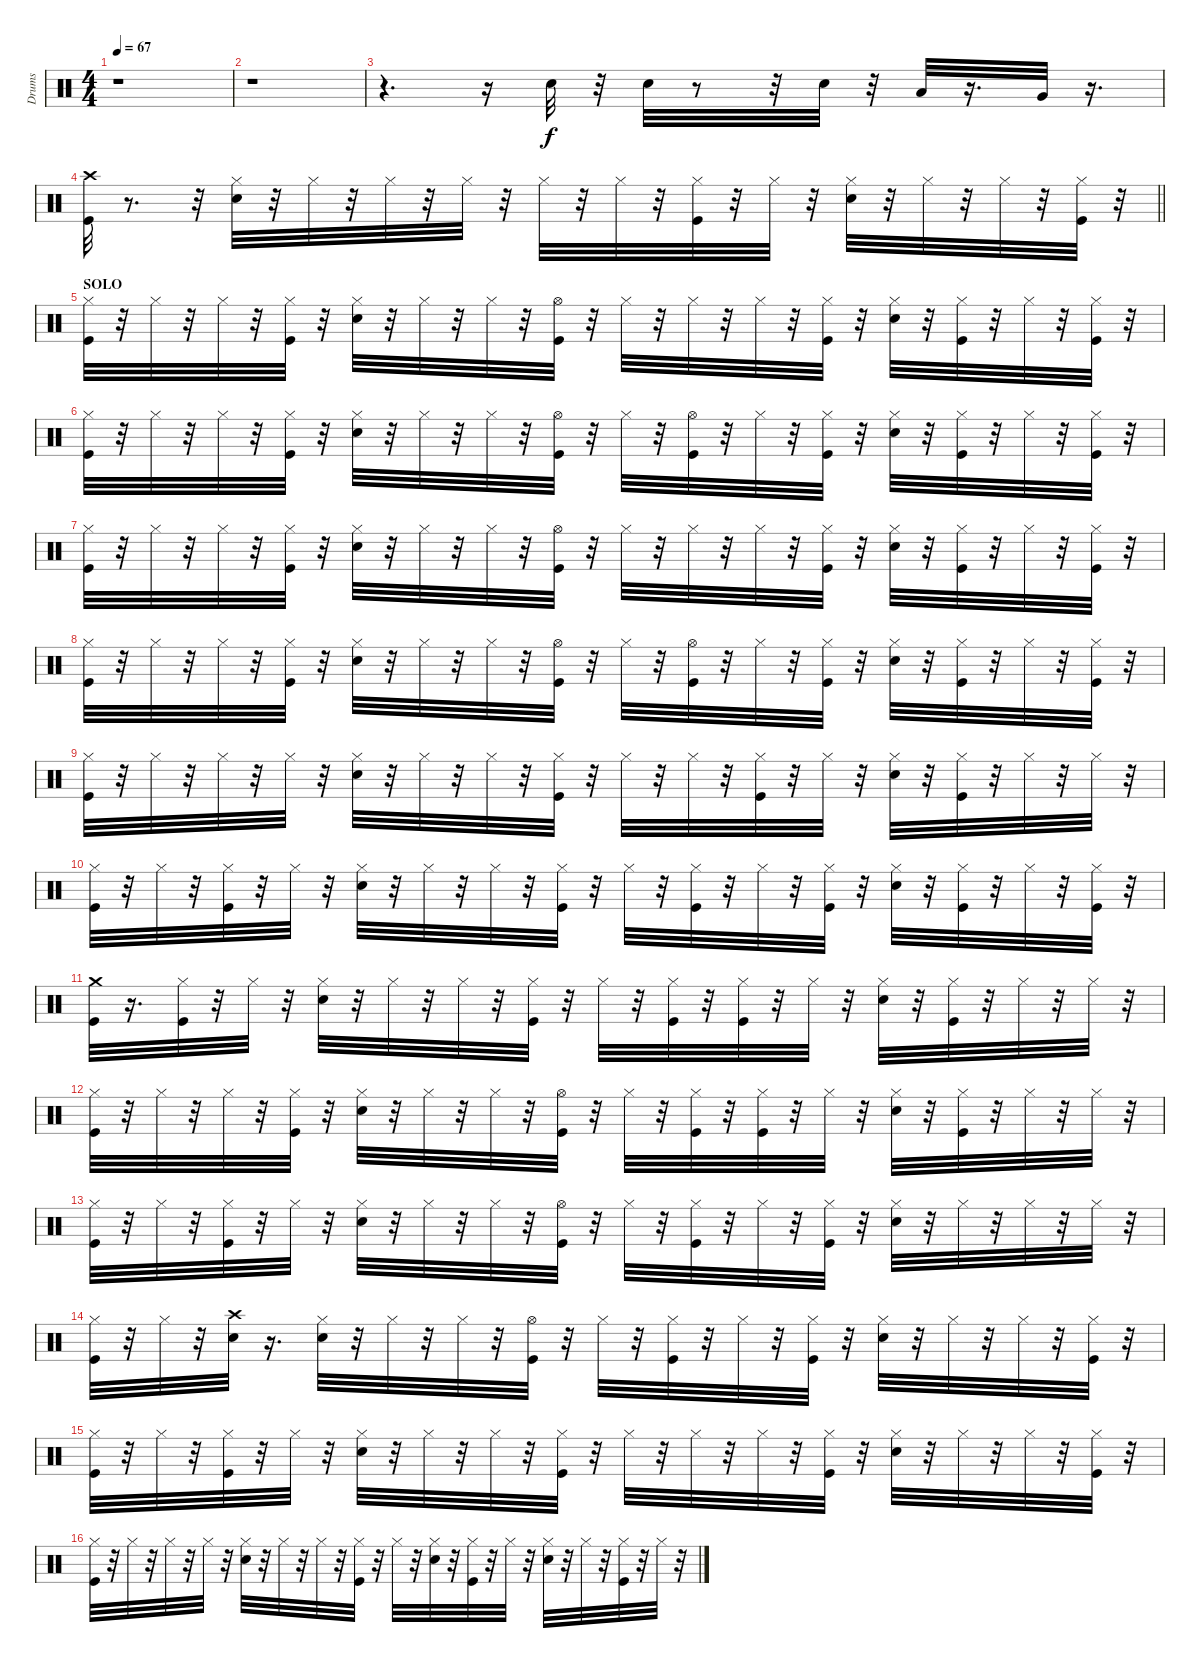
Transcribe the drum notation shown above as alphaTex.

\track ("Drums" "Drums") {instrument percussion}
\staff {score}
\articulation defaults
\ts (4 4)
\tempo 67
\clef neutral
\ks c
r.1{dy mf} |
r.1 |
r.4{d} r.16 "Snare (hit) 2".32{dy f} r.32 "Snare (hit) 2".32 r.8 r.32 "Snare (hit) 2".32 r.32 "Low Tom (hit)".32 r.16{d} "Very Low Tom (hit)".32 r.16{d} |
\barLineRight lightlight
("Crash high (hit)" "Kick (hit)").32 r.8{d} r.32 ("Hi-Hat (closed)" "Snare (hit) 2").32 r.32 "Hi-Hat (closed)".32 r.32 "Hi-Hat (closed)".32 r.32 "Hi-Hat (closed)".32 r.32 "Hi-Hat (closed)".32 r.32 "Hi-Hat (closed)".32 r.32 ("Hi-Hat (closed)" "Kick (hit)").32 r.32 "Hi-Hat (closed)".32 r.32 ("Hi-Hat (closed)" "Snare (hit) 2").32 r.32 "Hi-Hat (closed)".32 r.32 "Hi-Hat (closed)".32 r.32 ("Hi-Hat (closed)" "Kick (hit)").32 r.32 |
\section ("" "SOLO")
("Kick (hit)" "Hi-Hat (closed)").32 r.32 "Hi-Hat (closed)".32 r.32 "Hi-Hat (closed)".32 r.32 ("Kick (hit)" "Hi-Hat (closed)").32 r.32 ("Snare (hit) 2" "Hi-Hat (closed)").32 r.32 "Hi-Hat (closed)".32 r.32 "Hi-Hat (closed)".32 r.32 ("Kick (hit)" "Hi-Hat (open)").32 r.32 "Hi-Hat (closed)".32 r.32 "Hi-Hat (closed)".32 r.32 "Hi-Hat (closed)".32 r.32 ("Kick (hit)" "Hi-Hat (closed)").32 r.32 ("Snare (hit) 2" "Hi-Hat (closed)").32 r.32 ("Kick (hit)" "Hi-Hat (closed)").32 r.32 "Hi-Hat (closed)".32 r.32 ("Kick (hit)" "Hi-Hat (closed)").32 r.32 |
("Kick (hit)" "Hi-Hat (closed)").32 r.32 "Hi-Hat (closed)".32 r.32 "Hi-Hat (closed)".32 r.32 ("Kick (hit)" "Hi-Hat (closed)").32 r.32 ("Snare (hit) 2" "Hi-Hat (closed)").32 r.32 "Hi-Hat (closed)".32 r.32 "Hi-Hat (closed)".32 r.32 ("Kick (hit)" "Hi-Hat (open)").32 r.32 "Hi-Hat (closed)".32 r.32 ("Kick (hit)" "Hi-Hat (open)").32 r.32 "Hi-Hat (closed)".32 r.32 ("Kick (hit)" "Hi-Hat (closed)").32 r.32 ("Snare (hit) 2" "Hi-Hat (closed)").32 r.32 ("Kick (hit)" "Hi-Hat (closed)").32 r.32 "Hi-Hat (closed)".32 r.32 ("Kick (hit)" "Hi-Hat (closed)").32 r.32 |
("Hi-Hat (closed)" "Kick (hit)").32 r.32 "Hi-Hat (closed)".32 r.32 "Hi-Hat (closed)".32 r.32 ("Hi-Hat (closed)" "Kick (hit)").32 r.32 ("Hi-Hat (closed)" "Snare (hit) 2").32 r.32 "Hi-Hat (closed)".32 r.32 "Hi-Hat (closed)".32 r.32 ("Hi-Hat (open)" "Kick (hit)").32 r.32 "Hi-Hat (closed)".32 r.32 "Hi-Hat (closed)".32 r.32 "Hi-Hat (closed)".32 r.32 ("Hi-Hat (closed)" "Kick (hit)").32 r.32 ("Hi-Hat (closed)" "Snare (hit) 2").32 r.32 ("Hi-Hat (closed)" "Kick (hit)").32 r.32 "Hi-Hat (closed)".32 r.32 ("Hi-Hat (closed)" "Kick (hit)").32 r.32 |
("Hi-Hat (closed)" "Kick (hit)").32 r.32 "Hi-Hat (closed)".32 r.32 "Hi-Hat (closed)".32 r.32 ("Hi-Hat (closed)" "Kick (hit)").32 r.32 ("Hi-Hat (closed)" "Snare (hit) 2").32 r.32 "Hi-Hat (closed)".32 r.32 "Hi-Hat (closed)".32 r.32 ("Hi-Hat (open)" "Kick (hit)").32 r.32 "Hi-Hat (closed)".32 r.32 ("Kick (hit)" "Hi-Hat (open)").32 r.32 "Hi-Hat (closed)".32 r.32 ("Hi-Hat (closed)" "Kick (hit)").32 r.32 ("Hi-Hat (closed)" "Snare (hit) 2").32 r.32 ("Hi-Hat (closed)" "Kick (hit)").32 r.32 "Hi-Hat (closed)".32 r.32 ("Hi-Hat (closed)" "Kick (hit)").32 r.32 |
("Kick (hit)" "Hi-Hat (closed)").32 r.32 "Hi-Hat (closed)".32 r.32 "Hi-Hat (closed)".32 r.32 "Hi-Hat (closed)".32 r.32 ("Snare (hit) 2" "Hi-Hat (closed)").32 r.32 "Hi-Hat (closed)".32 r.32 "Hi-Hat (closed)".32 r.32 ("Hi-Hat (closed)" "Kick (hit)").32 r.32 "Hi-Hat (closed)".32 r.32 "Hi-Hat (closed)".32 r.32 ("Kick (hit)" "Hi-Hat (closed)").32 r.32 "Hi-Hat (closed)".32 r.32 ("Snare (hit) 2" "Hi-Hat (closed)").32 r.32 ("Kick (hit)" "Hi-Hat (closed)").32 r.32 "Hi-Hat (closed)".32 r.32 "Hi-Hat (closed)".32 r.32 |
("Kick (hit)" "Hi-Hat (closed)").32 r.32 "Hi-Hat (closed)".32 r.32 ("Kick (hit)" "Hi-Hat (closed)").32 r.32 "Hi-Hat (closed)".32 r.32 ("Snare (hit) 2" "Hi-Hat (closed)").32 r.32 "Hi-Hat (closed)".32 r.32 "Hi-Hat (closed)".32 r.32 ("Hi-Hat (closed)" "Kick (hit)").32 r.32 "Hi-Hat (closed)".32 r.32 ("Kick (hit)" "Hi-Hat (closed)").32 r.32 "Hi-Hat (closed)".32 r.32 ("Kick (hit)" "Hi-Hat (closed)").32 r.32 ("Snare (hit) 2" "Hi-Hat (closed)").32 r.32 ("Kick (hit)" "Hi-Hat (closed)").32 r.32 "Hi-Hat (closed)".32 r.32 ("Kick (hit)" "Hi-Hat (closed)").32 r.32 |
("Crash medium (hit)" "Kick (hit)").32 r.16{d} ("Kick (hit)" "Hi-Hat (closed)").32 r.32 "Hi-Hat (closed)".32 r.32 ("Snare (hit) 2" "Hi-Hat (closed)").32 r.32 "Hi-Hat (closed)".32 r.32 "Hi-Hat (closed)".32 r.32 ("Hi-Hat (closed)" "Kick (hit)").32 r.32 "Hi-Hat (closed)".32 r.32 ("Kick (hit)" "Hi-Hat (closed)").32 r.32 ("Kick (hit)" "Hi-Hat (closed)").32 r.32 "Hi-Hat (closed)".32 r.32 ("Snare (hit) 2" "Hi-Hat (closed)").32 r.32 ("Kick (hit)" "Hi-Hat (closed)").32 r.32 "Hi-Hat (closed)".32 r.32 "Hi-Hat (closed)".32 r.32 |
("Kick (hit)" "Hi-Hat (closed)").32 r.32 "Hi-Hat (closed)".32 r.32 "Hi-Hat (closed)".32 r.32 ("Kick (hit)" "Hi-Hat (closed)").32 r.32 ("Snare (hit) 2" "Hi-Hat (closed)").32 r.32 "Hi-Hat (closed)".32 r.32 "Hi-Hat (closed)".32 r.32 ("Hi-Hat (open)" "Kick (hit)").32 r.32 "Hi-Hat (closed)".32 r.32 ("Kick (hit)" "Hi-Hat (closed)").32 r.32 ("Kick (hit)" "Hi-Hat (closed)").32 r.32 "Hi-Hat (closed)".32 r.32 ("Snare (hit) 2" "Hi-Hat (closed)").32 r.32 ("Kick (hit)" "Hi-Hat (closed)").32 r.32 "Hi-Hat (closed)".32 r.32 "Hi-Hat (closed)".32 r.32 |
("Kick (hit)" "Hi-Hat (closed)").32 r.32 "Hi-Hat (closed)".32 r.32 ("Kick (hit)" "Hi-Hat (closed)").32 r.32 "Hi-Hat (closed)".32 r.32 ("Snare (hit) 2" "Hi-Hat (closed)").32 r.32 "Hi-Hat (closed)".32 r.32 "Hi-Hat (closed)".32 r.32 ("Hi-Hat (open)" "Kick (hit)").32 r.32 "Hi-Hat (closed)".32 r.32 ("Kick (hit)" "Hi-Hat (closed)").32 r.32 "Hi-Hat (closed)".32 r.32 ("Kick (hit)" "Hi-Hat (closed)").32 r.32 ("Snare (hit) 2" "Hi-Hat (closed)").32 r.32 "Hi-Hat (closed)".32 r.32 "Hi-Hat (closed)".32 r.32 "Hi-Hat (closed)".32 r.32 |
("Kick (hit)" "Hi-Hat (closed)").32 r.32 "Hi-Hat (closed)".32 r.32 ("Snare (hit) 2" "Crash high (hit)").32 r.16{d} ("Snare (hit) 2" "Hi-Hat (closed)").32 r.32 "Hi-Hat (closed)".32 r.32 "Hi-Hat (closed)".32 r.32 ("Kick (hit)" "Hi-Hat (open)").32 r.32 "Hi-Hat (closed)".32 r.32 ("Kick (hit)" "Hi-Hat (closed)").32 r.32 "Hi-Hat (closed)".32 r.32 ("Kick (hit)" "Hi-Hat (closed)").32 r.32 ("Snare (hit) 2" "Hi-Hat (closed)").32 r.32 "Hi-Hat (closed)".32 r.32 "Hi-Hat (closed)".32 r.32 ("Kick (hit)" "Hi-Hat (closed)").32 r.32 |
("Kick (hit)" "Hi-Hat (closed)").32 r.32 "Hi-Hat (closed)".32 r.32 ("Kick (hit)" "Hi-Hat (closed)").32 r.32 "Hi-Hat (closed)".32 r.32 ("Snare (hit) 2" "Hi-Hat (closed)").32 r.32 "Hi-Hat (closed)".32 r.32 "Hi-Hat (closed)".32 r.32 ("Hi-Hat (closed)" "Kick (hit)").32 r.32 "Hi-Hat (closed)".32 r.32 "Hi-Hat (closed)".32 r.32 "Hi-Hat (closed)".32 r.32 ("Kick (hit)" "Hi-Hat (closed)").32 r.32 ("Snare (hit) 2" "Hi-Hat (closed)").32 r.32 "Hi-Hat (closed)".32 r.32 "Hi-Hat (closed)".32 r.32 ("Kick (hit)" "Hi-Hat (closed)").32 r.32 |
("Kick (hit)" "Hi-Hat (closed)").32 r.32 "Hi-Hat (closed)".32 r.32 "Hi-Hat (closed)".32 r.32 "Hi-Hat (closed)".32 r.32 ("Snare (hit) 2" "Hi-Hat (closed)").32 r.32 "Hi-Hat (closed)".32 r.32 "Hi-Hat (closed)".32 r.32 ("Hi-Hat (closed)" "Kick (hit)").32 r.32 "Hi-Hat (closed)".32 r.32 ("Snare (hit) 2" "Hi-Hat (closed)").32 r.32 ("Kick (hit)" "Hi-Hat (closed)").32 r.32 "Hi-Hat (closed)".32 r.32 ("Snare (hit) 2" "Hi-Hat (closed)").32 r.32 "Hi-Hat (closed)".32 r.32 ("Kick (hit)" "Hi-Hat (closed)").32 r.32 "Hi-Hat (closed)".32 r.32
